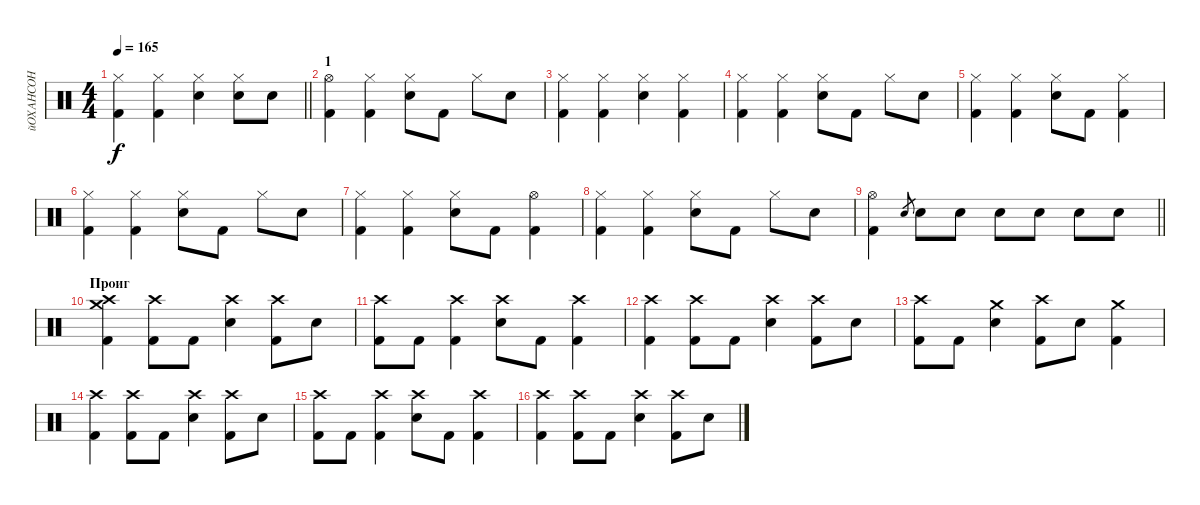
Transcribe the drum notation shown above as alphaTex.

\track ("йОХАНСОН" "йОХАНСОН") {instrument percussion}
\staff {score}
\articulation defaults
\ts (4 4)
\tempo 165
\clef neutral
\barLineRight lightlight
\ks c
("Hi-Hat (closed)" "Kick (hit) 2").4{dy f} ("Hi-Hat (closed)" "Kick (hit) 2").4 ("Hi-Hat (closed)" "Snare (hit) 2").4 ("Hi-Hat (closed)" "Snare (hit) 2").8 "Snare (hit) 2".8 |
\section ("" "1")
("Hi-Hat (open)" "Kick (hit) 2").4 ("Hi-Hat (closed)" "Kick (hit) 2").4 ("Hi-Hat (closed)" "Snare (hit) 2").8 "Kick (hit) 2".8 "Hi-Hat (closed)".8 "Snare (hit) 2".8 |
("Hi-Hat (closed)" "Kick (hit) 2").4 ("Hi-Hat (closed)" "Kick (hit) 2").4 ("Hi-Hat (closed)" "Snare (hit) 2").4 ("Hi-Hat (closed)" "Kick (hit) 2").4 |
("Hi-Hat (closed)" "Kick (hit) 2").4 ("Hi-Hat (closed)" "Kick (hit) 2").4 ("Hi-Hat (closed)" "Snare (hit) 2").8 "Kick (hit) 2".8 "Hi-Hat (closed)".8 "Snare (hit) 2".8 |
("Hi-Hat (closed)" "Kick (hit) 2").4 ("Hi-Hat (closed)" "Kick (hit) 2").4 ("Hi-Hat (closed)" "Snare (hit) 2").8 "Kick (hit) 2".8 ("Hi-Hat (closed)" "Kick (hit) 2").4 |
("Hi-Hat (closed)" "Kick (hit) 2").4 ("Hi-Hat (closed)" "Kick (hit) 2").4 ("Hi-Hat (closed)" "Snare (hit) 2").8 "Kick (hit) 2".8 "Hi-Hat (closed)".8 "Snare (hit) 2".8 |
("Hi-Hat (closed)" "Kick (hit) 2").4 ("Hi-Hat (closed)" "Kick (hit) 2").4 ("Hi-Hat (closed)" "Snare (hit) 2").8 "Kick (hit) 2".8 ("Hi-Hat (open)" "Kick (hit) 2").4 |
("Hi-Hat (closed)" "Kick (hit) 2").4 ("Hi-Hat (closed)" "Kick (hit) 2").4 ("Hi-Hat (closed)" "Snare (hit) 2").8 "Kick (hit) 2".8 "Hi-Hat (closed)".8 "Snare (hit) 2".8 |
\barLineRight lightlight
("Hi-Hat (open)" "Kick (hit) 2").4 "Snare (hit) 2".8{gr} "Snare (hit) 2".8 "Snare (hit) 2".8 "Snare (hit) 2".8 "Snare (hit) 2".8 "Snare (hit) 2".8 "Snare (hit) 2".8 |
\section ("" "Проиг")
("Crash high (hit)" "Crash medium (hit)" "Kick (hit) 2").4 ("Crash high (hit)" "Kick (hit) 2").8 "Kick (hit) 2".8 ("Crash high (hit)" "Snare (hit) 2").4 ("Crash high (hit)" "Kick (hit) 2").8 "Snare (hit) 2".8 |
("Crash high (hit)" "Kick (hit) 2").8 "Kick (hit) 2".8 ("Crash high (hit)" "Kick (hit) 2").4 ("Crash high (hit)" "Snare (hit) 2").8 "Kick (hit) 2".8 ("Crash high (hit)" "Kick (hit) 2").4 |
("Crash high (hit)" "Kick (hit) 2").4 ("Crash high (hit)" "Kick (hit) 2").8 "Kick (hit) 2".8 ("Crash high (hit)" "Snare (hit) 2").4 ("Crash high (hit)" "Kick (hit) 2").8 "Snare (hit) 2".8 |
("Crash high (hit)" "Kick (hit) 2").8 "Kick (hit) 2".8 ("Crash medium (hit)" "Snare (hit) 2").4 ("Crash high (hit)" "Kick (hit) 2").8 "Snare (hit) 2".8 ("Crash medium (hit)" "Kick (hit) 2").4 |
("Crash high (hit)" "Kick (hit) 2").4 ("Crash high (hit)" "Kick (hit) 2").8 "Kick (hit) 2".8 ("Crash high (hit)" "Snare (hit) 2").4 ("Crash high (hit)" "Kick (hit) 2").8 "Snare (hit) 2".8 |
("Crash high (hit)" "Kick (hit) 2").8 "Kick (hit) 2".8 ("Crash high (hit)" "Kick (hit) 2").4 ("Crash high (hit)" "Snare (hit) 2").8 "Kick (hit) 2".8 ("Crash high (hit)" "Kick (hit) 2").4 |
("Crash high (hit)" "Kick (hit) 2").4 ("Crash high (hit)" "Kick (hit) 2").8 "Kick (hit) 2".8 ("Crash high (hit)" "Snare (hit) 2").4 ("Crash high (hit)" "Kick (hit) 2").8 "Snare (hit) 2".8
